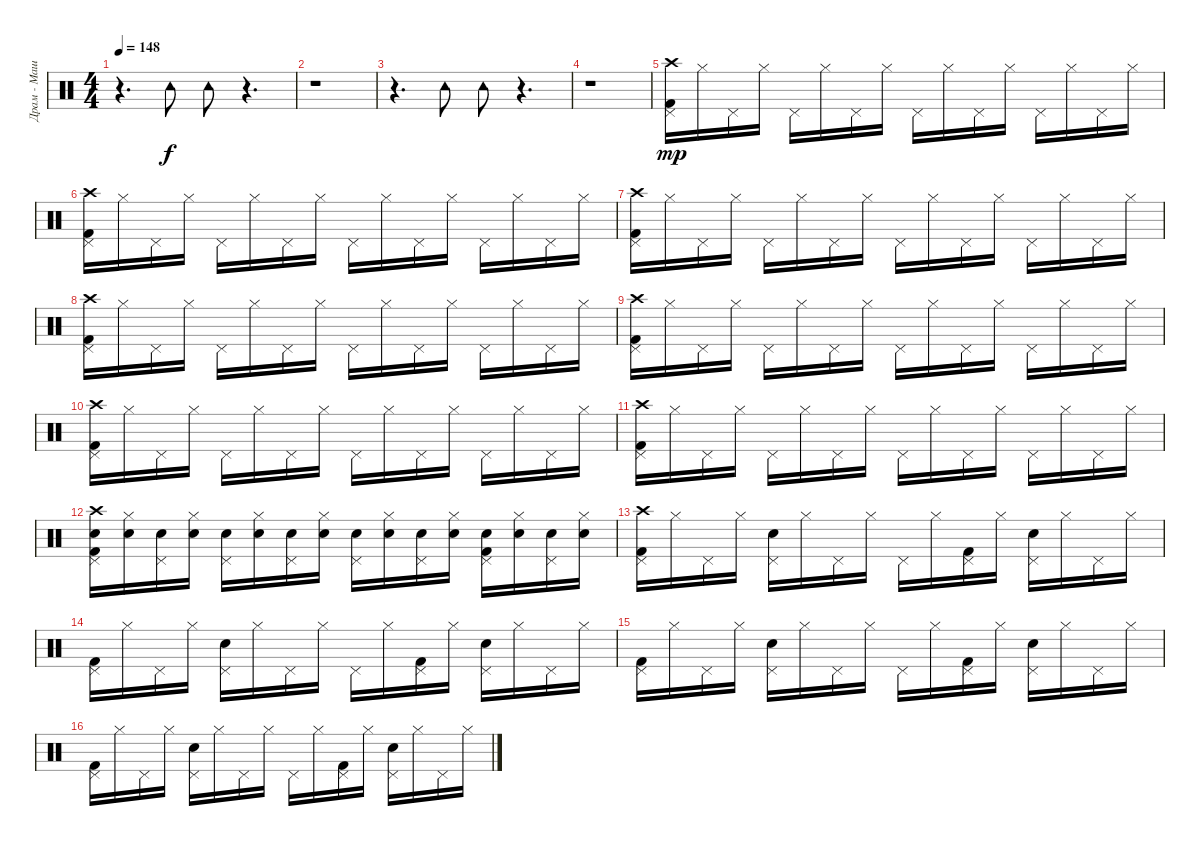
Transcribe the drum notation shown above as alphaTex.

\track ("Драм - Машина 2" "Драм - Маш") {instrument percussion}
\staff {score}
\articulation defaults
\ts (4 4)
\tempo 148
\clef neutral
\ks c
r.4{d dy f} "Tambourine (hit)".8 "Tambourine (hit)".8 r.4{d} |
r.1 |
r.4{d} "Tambourine (hit)".8 "Tambourine (hit)".8 r.4{d} |
r.1 |
("Kick (hit) 2" "Crash high (hit)" "Pedal Hi-Hat (hit)").16{dy mp} "Hi-Hat (closed)".16 "Pedal Hi-Hat (hit)".16 "Hi-Hat (closed)".16 "Pedal Hi-Hat (hit)".16 "Hi-Hat (closed)".16 "Pedal Hi-Hat (hit)".16 "Hi-Hat (closed)".16 "Pedal Hi-Hat (hit)".16 "Hi-Hat (closed)".16 "Pedal Hi-Hat (hit)".16 "Hi-Hat (closed)".16 "Pedal Hi-Hat (hit)".16 "Hi-Hat (closed)".16 "Pedal Hi-Hat (hit)".16 "Hi-Hat (closed)".16 |
("Kick (hit) 2" "Crash high (hit)" "Pedal Hi-Hat (hit)").16 "Hi-Hat (closed)".16 "Pedal Hi-Hat (hit)".16 "Hi-Hat (closed)".16 "Pedal Hi-Hat (hit)".16 "Hi-Hat (closed)".16 "Pedal Hi-Hat (hit)".16 "Hi-Hat (closed)".16 "Pedal Hi-Hat (hit)".16 "Hi-Hat (closed)".16 "Pedal Hi-Hat (hit)".16 "Hi-Hat (closed)".16 "Pedal Hi-Hat (hit)".16 "Hi-Hat (closed)".16 "Pedal Hi-Hat (hit)".16 "Hi-Hat (closed)".16 |
("Kick (hit) 2" "Crash high (hit)" "Pedal Hi-Hat (hit)").16 "Hi-Hat (closed)".16 "Pedal Hi-Hat (hit)".16 "Hi-Hat (closed)".16 "Pedal Hi-Hat (hit)".16 "Hi-Hat (closed)".16 "Pedal Hi-Hat (hit)".16 "Hi-Hat (closed)".16 "Pedal Hi-Hat (hit)".16 "Hi-Hat (closed)".16 "Pedal Hi-Hat (hit)".16 "Hi-Hat (closed)".16 "Pedal Hi-Hat (hit)".16 "Hi-Hat (closed)".16 "Pedal Hi-Hat (hit)".16 "Hi-Hat (closed)".16 |
("Kick (hit) 2" "Crash high (hit)" "Pedal Hi-Hat (hit)").16 "Hi-Hat (closed)".16 "Pedal Hi-Hat (hit)".16 "Hi-Hat (closed)".16 "Pedal Hi-Hat (hit)".16 "Hi-Hat (closed)".16 "Pedal Hi-Hat (hit)".16 "Hi-Hat (closed)".16 "Pedal Hi-Hat (hit)".16 "Hi-Hat (closed)".16 "Pedal Hi-Hat (hit)".16 "Hi-Hat (closed)".16 "Pedal Hi-Hat (hit)".16 "Hi-Hat (closed)".16 "Pedal Hi-Hat (hit)".16 "Hi-Hat (closed)".16 |
("Kick (hit) 2" "Crash high (hit)" "Pedal Hi-Hat (hit)").16 "Hi-Hat (closed)".16 "Pedal Hi-Hat (hit)".16 "Hi-Hat (closed)".16 "Pedal Hi-Hat (hit)".16 "Hi-Hat (closed)".16 "Pedal Hi-Hat (hit)".16 "Hi-Hat (closed)".16 "Pedal Hi-Hat (hit)".16 "Hi-Hat (closed)".16 "Pedal Hi-Hat (hit)".16 "Hi-Hat (closed)".16 "Pedal Hi-Hat (hit)".16 "Hi-Hat (closed)".16 "Pedal Hi-Hat (hit)".16 "Hi-Hat (closed)".16 |
("Kick (hit) 2" "Crash high (hit)" "Pedal Hi-Hat (hit)").16 "Hi-Hat (closed)".16 "Pedal Hi-Hat (hit)".16 "Hi-Hat (closed)".16 "Pedal Hi-Hat (hit)".16 "Hi-Hat (closed)".16 "Pedal Hi-Hat (hit)".16 "Hi-Hat (closed)".16 "Pedal Hi-Hat (hit)".16 "Hi-Hat (closed)".16 "Pedal Hi-Hat (hit)".16 "Hi-Hat (closed)".16 "Pedal Hi-Hat (hit)".16 "Hi-Hat (closed)".16 "Pedal Hi-Hat (hit)".16 "Hi-Hat (closed)".16 |
("Kick (hit) 2" "Crash high (hit)" "Pedal Hi-Hat (hit)").16 "Hi-Hat (closed)".16 "Pedal Hi-Hat (hit)".16 "Hi-Hat (closed)".16 "Pedal Hi-Hat (hit)".16 "Hi-Hat (closed)".16 "Pedal Hi-Hat (hit)".16 "Hi-Hat (closed)".16 "Pedal Hi-Hat (hit)".16 "Hi-Hat (closed)".16 "Pedal Hi-Hat (hit)".16 "Hi-Hat (closed)".16 "Pedal Hi-Hat (hit)".16 "Hi-Hat (closed)".16 "Pedal Hi-Hat (hit)".16 "Hi-Hat (closed)".16 |
("Kick (hit) 2" "Crash high (hit)" "Snare (hit) 2" "Pedal Hi-Hat (hit)").16 ("Snare (hit) 2" "Hi-Hat (closed)").16 ("Snare (hit) 2" "Pedal Hi-Hat (hit)").16 ("Snare (hit) 2" "Hi-Hat (closed)").16 ("Snare (hit) 2" "Pedal Hi-Hat (hit)").16 ("Snare (hit) 2" "Hi-Hat (closed)").16 ("Snare (hit) 2" "Pedal Hi-Hat (hit)").16 ("Snare (hit) 2" "Hi-Hat (closed)").16 ("Snare (hit) 2" "Pedal Hi-Hat (hit)").16 ("Snare (hit) 2" "Hi-Hat (closed)").16 ("Snare (hit) 2" "Pedal Hi-Hat (hit)").16 ("Snare (hit) 2" "Hi-Hat (closed)").16 ("Snare (hit) 2" "Kick (hit) 2" "Pedal Hi-Hat (hit)").16 ("Snare (hit) 2" "Hi-Hat (closed)").16 ("Snare (hit) 2" "Pedal Hi-Hat (hit)").16 ("Snare (hit) 2" "Hi-Hat (closed)").16 |
("Kick (hit) 2" "Crash high (hit)" "Pedal Hi-Hat (hit)").16 "Hi-Hat (closed)".16 "Pedal Hi-Hat (hit)".16 "Hi-Hat (closed)".16 ("Snare (hit) 2" "Pedal Hi-Hat (hit)").16 "Hi-Hat (closed)".16 "Pedal Hi-Hat (hit)".16 "Hi-Hat (closed)".16 "Pedal Hi-Hat (hit)".16 "Hi-Hat (closed)".16 ("Kick (hit) 2" "Pedal Hi-Hat (hit)").16 "Hi-Hat (closed)".16 ("Snare (hit) 2" "Pedal Hi-Hat (hit)").16 "Hi-Hat (closed)".16 "Pedal Hi-Hat (hit)".16 "Hi-Hat (closed)".16 |
("Kick (hit) 2" "Pedal Hi-Hat (hit)").16 "Hi-Hat (closed)".16 "Pedal Hi-Hat (hit)".16 "Hi-Hat (closed)".16 ("Snare (hit) 2" "Pedal Hi-Hat (hit)").16 "Hi-Hat (closed)".16 "Pedal Hi-Hat (hit)".16 "Hi-Hat (closed)".16 "Pedal Hi-Hat (hit)".16 "Hi-Hat (closed)".16 ("Kick (hit) 2" "Pedal Hi-Hat (hit)").16 "Hi-Hat (closed)".16 ("Snare (hit) 2" "Pedal Hi-Hat (hit)").16 "Hi-Hat (closed)".16 "Pedal Hi-Hat (hit)".16 "Hi-Hat (closed)".16 |
("Kick (hit) 2" "Pedal Hi-Hat (hit)").16 "Hi-Hat (closed)".16 "Pedal Hi-Hat (hit)".16 "Hi-Hat (closed)".16 ("Snare (hit) 2" "Pedal Hi-Hat (hit)").16 "Hi-Hat (closed)".16 "Pedal Hi-Hat (hit)".16 "Hi-Hat (closed)".16 "Pedal Hi-Hat (hit)".16 "Hi-Hat (closed)".16 ("Kick (hit) 2" "Pedal Hi-Hat (hit)").16 "Hi-Hat (closed)".16 ("Snare (hit) 2" "Pedal Hi-Hat (hit)").16 "Hi-Hat (closed)".16 "Pedal Hi-Hat (hit)".16 "Hi-Hat (closed)".16 |
("Kick (hit) 2" "Pedal Hi-Hat (hit)").16 "Hi-Hat (closed)".16 "Pedal Hi-Hat (hit)".16 "Hi-Hat (closed)".16 ("Snare (hit) 2" "Pedal Hi-Hat (hit)").16 "Hi-Hat (closed)".16 "Pedal Hi-Hat (hit)".16 "Hi-Hat (closed)".16 "Pedal Hi-Hat (hit)".16 "Hi-Hat (closed)".16 ("Kick (hit) 2" "Pedal Hi-Hat (hit)").16 "Hi-Hat (closed)".16 ("Snare (hit) 2" "Pedal Hi-Hat (hit)").16 "Hi-Hat (closed)".16 "Pedal Hi-Hat (hit)".16 "Hi-Hat (closed)".16
